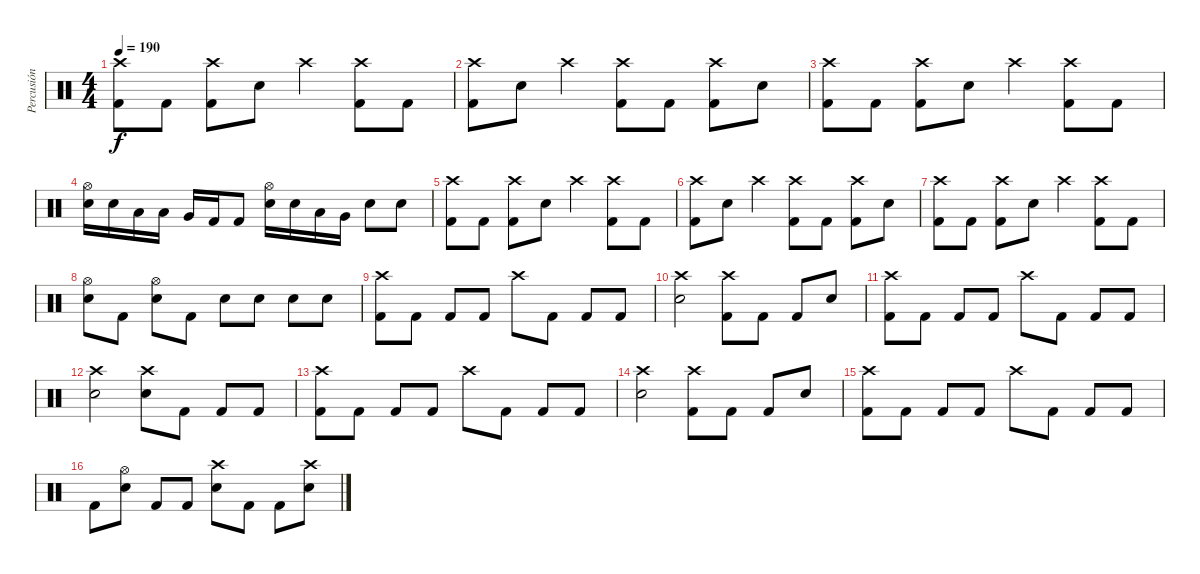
\track ("Percusión" "Percusión") {instrument percussion}
\staff {score}
\articulation defaults
\ts (4 4)
\tempo 190
\clef neutral
\ks c
("Crash high (hit)" "Kick (hit) 2").8{dy f} "Kick (hit) 2".8 ("Crash high (hit)" "Kick (hit) 2").8 "Electric Snare (hit)".8 "Crash high (hit)".4 ("Crash high (hit)" "Kick (hit) 2").8 "Kick (hit) 2".8 |
("Crash high (hit)" "Kick (hit) 2").8 "Electric Snare (hit)".8 "Crash high (hit)".4 ("Crash high (hit)" "Kick (hit) 2").8 "Kick (hit) 2".8 ("Crash high (hit)" "Kick (hit) 2").8 "Electric Snare (hit)".8 |
("Crash high (hit)" "Kick (hit) 2").8 "Kick (hit) 2".8 ("Crash high (hit)" "Kick (hit) 2").8 "Electric Snare (hit)".8 "Crash high (hit)".4 ("Crash high (hit)" "Kick (hit) 2").8 "Kick (hit) 2".8 |
("Hi-Hat (open)" "Electric Snare (hit)").16 "Electric Snare (hit)".16 "Low Tom (hit)".16 "Low Tom (hit)".16 "Very Low Tom (hit)".16 "Kick (hit) 2".16 "Kick (hit) 2".8 ("Hi-Hat (open)" "Electric Snare (hit)").16 "Electric Snare (hit)".16 "Low Tom (hit)".16 "Very Low Tom (hit)".16 "Electric Snare (hit)".8 "Electric Snare (hit)".8 |
("Crash high (hit)" "Kick (hit) 2").8 "Kick (hit) 2".8 ("Crash high (hit)" "Kick (hit) 2").8 "Electric Snare (hit)".8 "Crash high (hit)".4 ("Crash high (hit)" "Kick (hit) 2").8 "Kick (hit) 2".8 |
("Crash high (hit)" "Kick (hit) 2").8 "Electric Snare (hit)".8 "Crash high (hit)".4 ("Crash high (hit)" "Kick (hit) 2").8 "Kick (hit) 2".8 ("Crash high (hit)" "Kick (hit) 2").8 "Electric Snare (hit)".8 |
("Crash high (hit)" "Kick (hit) 2").8 "Kick (hit) 2".8 ("Crash high (hit)" "Kick (hit) 2").8 "Electric Snare (hit)".8 "Crash high (hit)".4 ("Crash high (hit)" "Kick (hit) 2").8 "Kick (hit) 2".8 |
("Hi-Hat (open)" "Electric Snare (hit)").8 "Kick (hit) 2".8 ("Hi-Hat (open)" "Electric Snare (hit)").8 "Kick (hit) 2".8 "Electric Snare (hit)".8 "Electric Snare (hit)".8 "Electric Snare (hit)".8 "Electric Snare (hit)".8 |
("Crash high (hit)" "Kick (hit) 2").8 "Kick (hit) 2".8 "Kick (hit) 2".8 "Kick (hit) 2".8 "Crash high (hit)".8 "Kick (hit) 2".8 "Kick (hit) 2".8 "Kick (hit) 2".8 |
("Crash high (hit)" "Electric Snare (hit)").2 ("Crash high (hit)" "Kick (hit) 2").8 "Kick (hit) 2".8 "Kick (hit) 2".8 "Electric Snare (hit)".8 |
("Crash high (hit)" "Kick (hit) 2").8 "Kick (hit) 2".8 "Kick (hit) 2".8 "Kick (hit) 2".8 "Crash high (hit)".8 "Kick (hit) 2".8 "Kick (hit) 2".8 "Kick (hit) 2".8 |
("Crash high (hit)" "Electric Snare (hit)").2 ("Crash high (hit)" "Electric Snare (hit)").8 "Kick (hit) 2".8 "Kick (hit) 2".8 "Kick (hit) 2".8 |
("Crash high (hit)" "Kick (hit) 2").8 "Kick (hit) 2".8 "Kick (hit) 2".8 "Kick (hit) 2".8 "Crash high (hit)".8 "Kick (hit) 2".8 "Kick (hit) 2".8 "Kick (hit) 2".8 |
("Crash high (hit)" "Electric Snare (hit)").2 ("Crash high (hit)" "Kick (hit) 2").8 "Kick (hit) 2".8 "Kick (hit) 2".8 "Electric Snare (hit)".8 |
("Crash high (hit)" "Kick (hit) 2").8 "Kick (hit) 2".8 "Kick (hit) 2".8 "Kick (hit) 2".8 "Crash high (hit)".8 "Kick (hit) 2".8 "Kick (hit) 2".8 "Kick (hit) 2".8 |
"Kick (hit) 2".8 ("Hi-Hat (open)" "Electric Snare (hit)").8 "Kick (hit) 2".8 "Kick (hit) 2".8 ("Crash high (hit)" "Electric Snare (hit)").8 "Kick (hit) 2".8 "Kick (hit) 2".8 ("Crash high (hit)" "Electric Snare (hit)").8
